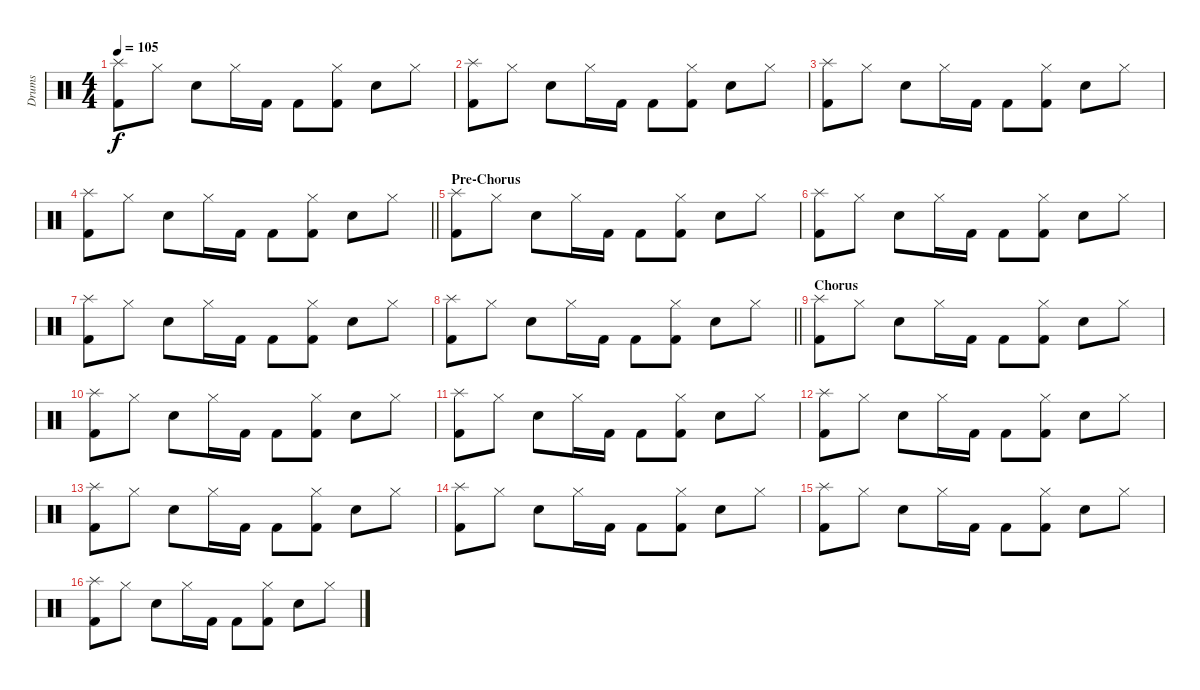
\track ("Drums" "Drums") {instrument percussion}
\staff {score}
\articulation defaults
\ts (4 4)
\tempo 105
\clef neutral
\ks c
("Splash (hit)" "Kick (hit) 2").8{dy f} "Hi-Hat (closed)".8 "Electric Snare (hit)".8 "Hi-Hat (closed)".16 "Kick (hit) 2".16 "Kick (hit) 2".8 ("Hi-Hat (closed)" "Kick (hit) 2").8 "Electric Snare (hit)".8 "Hi-Hat (closed)".8 |
("Splash (hit)" "Kick (hit) 2").8 "Hi-Hat (closed)".8 "Electric Snare (hit)".8 "Hi-Hat (closed)".16 "Kick (hit) 2".16 "Kick (hit) 2".8 ("Hi-Hat (closed)" "Kick (hit) 2").8 "Electric Snare (hit)".8 "Hi-Hat (closed)".8 |
("Splash (hit)" "Kick (hit) 2").8 "Hi-Hat (closed)".8 "Electric Snare (hit)".8 "Hi-Hat (closed)".16 "Kick (hit) 2".16 "Kick (hit) 2".8 ("Hi-Hat (closed)" "Kick (hit) 2").8 "Electric Snare (hit)".8 "Hi-Hat (closed)".8 |
\barLineRight lightlight
("Splash (hit)" "Kick (hit) 2").8 "Hi-Hat (closed)".8 "Electric Snare (hit)".8 "Hi-Hat (closed)".16 "Kick (hit) 2".16 "Kick (hit) 2".8 ("Hi-Hat (closed)" "Kick (hit) 2").8 "Electric Snare (hit)".8 "Hi-Hat (closed)".8 |
\section ("" "Pre-Chorus")
("Splash (hit)" "Kick (hit) 2").8 "Hi-Hat (closed)".8 "Electric Snare (hit)".8 "Hi-Hat (closed)".16 "Kick (hit) 2".16 "Kick (hit) 2".8 ("Hi-Hat (closed)" "Kick (hit) 2").8 "Electric Snare (hit)".8 "Hi-Hat (closed)".8 |
("Splash (hit)" "Kick (hit) 2").8 "Hi-Hat (closed)".8 "Electric Snare (hit)".8 "Hi-Hat (closed)".16 "Kick (hit) 2".16 "Kick (hit) 2".8 ("Hi-Hat (closed)" "Kick (hit) 2").8 "Electric Snare (hit)".8 "Hi-Hat (closed)".8 |
("Splash (hit)" "Kick (hit) 2").8 "Hi-Hat (closed)".8 "Electric Snare (hit)".8 "Hi-Hat (closed)".16 "Kick (hit) 2".16 "Kick (hit) 2".8 ("Hi-Hat (closed)" "Kick (hit) 2").8 "Electric Snare (hit)".8 "Hi-Hat (closed)".8 |
\barLineRight lightlight
("Splash (hit)" "Kick (hit) 2").8 "Hi-Hat (closed)".8 "Electric Snare (hit)".8 "Hi-Hat (closed)".16 "Kick (hit) 2".16 "Kick (hit) 2".8 ("Hi-Hat (closed)" "Kick (hit) 2").8 "Electric Snare (hit)".8 "Hi-Hat (closed)".8 |
\section ("" "Chorus")
("Splash (hit)" "Kick (hit) 2").8 "Hi-Hat (closed)".8 "Electric Snare (hit)".8 "Hi-Hat (closed)".16 "Kick (hit) 2".16 "Kick (hit) 2".8 ("Hi-Hat (closed)" "Kick (hit) 2").8 "Electric Snare (hit)".8 "Hi-Hat (closed)".8 |
("Splash (hit)" "Kick (hit) 2").8 "Hi-Hat (closed)".8 "Electric Snare (hit)".8 "Hi-Hat (closed)".16 "Kick (hit) 2".16 "Kick (hit) 2".8 ("Hi-Hat (closed)" "Kick (hit) 2").8 "Electric Snare (hit)".8 "Hi-Hat (closed)".8 |
("Splash (hit)" "Kick (hit) 2").8 "Hi-Hat (closed)".8 "Electric Snare (hit)".8 "Hi-Hat (closed)".16 "Kick (hit) 2".16 "Kick (hit) 2".8 ("Hi-Hat (closed)" "Kick (hit) 2").8 "Electric Snare (hit)".8 "Hi-Hat (closed)".8 |
("Splash (hit)" "Kick (hit) 2").8 "Hi-Hat (closed)".8 "Electric Snare (hit)".8 "Hi-Hat (closed)".16 "Kick (hit) 2".16 "Kick (hit) 2".8 ("Hi-Hat (closed)" "Kick (hit) 2").8 "Electric Snare (hit)".8 "Hi-Hat (closed)".8 |
("Splash (hit)" "Kick (hit) 2").8 "Hi-Hat (closed)".8 "Electric Snare (hit)".8 "Hi-Hat (closed)".16 "Kick (hit) 2".16 "Kick (hit) 2".8 ("Hi-Hat (closed)" "Kick (hit) 2").8 "Electric Snare (hit)".8 "Hi-Hat (closed)".8 |
("Splash (hit)" "Kick (hit) 2").8 "Hi-Hat (closed)".8 "Electric Snare (hit)".8 "Hi-Hat (closed)".16 "Kick (hit) 2".16 "Kick (hit) 2".8 ("Hi-Hat (closed)" "Kick (hit) 2").8 "Electric Snare (hit)".8 "Hi-Hat (closed)".8 |
("Splash (hit)" "Kick (hit) 2").8 "Hi-Hat (closed)".8 "Electric Snare (hit)".8 "Hi-Hat (closed)".16 "Kick (hit) 2".16 "Kick (hit) 2".8 ("Hi-Hat (closed)" "Kick (hit) 2").8 "Electric Snare (hit)".8 "Hi-Hat (closed)".8 |
("Splash (hit)" "Kick (hit) 2").8 "Hi-Hat (closed)".8 "Electric Snare (hit)".8 "Hi-Hat (closed)".16 "Kick (hit) 2".16 "Kick (hit) 2".8 ("Hi-Hat (closed)" "Kick (hit) 2").8 "Electric Snare (hit)".8 "Hi-Hat (closed)".8
